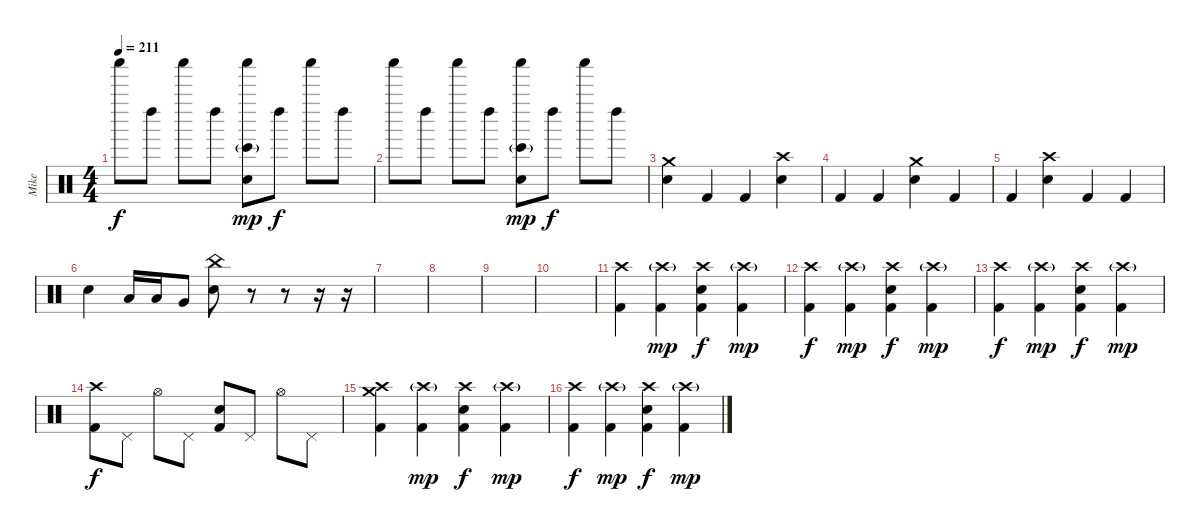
\track ("Mike" "Mike") {instrument percussion}
\staff {score}
\articulation defaults
\ts (4 4)
\tempo 211
\clef neutral
\ks c "Shaker (hit)".8{dy f} "Left Maraca (hit)".8 "Shaker (hit)".8 "Left Maraca (hit)".8
("Shaker (hit)" "Bongo High (hit)"{g} "Electric Snare (hit)").8{dy mp} "Left Maraca (hit)".8{dy f} "Shaker (hit)".8 "Left Maraca (hit)".8 |
"Shaker (hit)".8 "Left Maraca (hit)".8 "Shaker (hit)".8 "Left Maraca (hit)".8 ("Shaker (hit)" "Bongo High (hit)"{g} "Electric Snare (hit)").8{dy mp} "Left Maraca (hit)".8{dy f} "Shaker (hit)".8 "Left Maraca (hit)".8 |
("Crash medium (hit)" "Electric Snare (hit)").4 "Kick (hit) 2".4 "Kick (hit) 2".4 ("Crash high (hit)" "Electric Snare (hit)").4 |
"Kick (hit) 2".4 "Kick (hit) 2".4 ("Crash medium (hit)" "Electric Snare (hit)").4 "Kick (hit) 2".4 |
"Kick (hit) 2".4 ("Crash high (hit)" "Electric Snare (hit)").4 "Kick (hit) 2".4 "Kick (hit) 2".4 |
"Electric Snare (hit)".4 "Low Tom (hit)".16 "Low Tom (hit)".16 "Very Low Tom (hit)".8 ("China (hit)" "Electric Snare (hit)").8 r.8 r.8 r.16 r.16 |
|
|
|
|
("Crash high (hit)" "Kick (hit) 2").4 ("Crash high (hit)"{g} "Kick (hit) 2").4{dy mp} ("Crash high (hit)" "Electric Snare (hit)" "Kick (hit) 2").4{dy f} ("Crash high (hit)"{g} "Kick (hit) 2").4{dy mp} |
("Crash high (hit)" "Kick (hit) 2").4{dy f} ("Crash high (hit)"{g} "Kick (hit) 2").4{dy mp} ("Crash high (hit)" "Electric Snare (hit)" "Kick (hit) 2").4{dy f} ("Crash high (hit)"{g} "Kick (hit) 2").4{dy mp} |
("Crash high (hit)" "Kick (hit) 2").4{dy f} ("Crash high (hit)"{g} "Kick (hit) 2").4{dy mp} ("Crash high (hit)" "Electric Snare (hit)" "Kick (hit) 2").4{dy f} ("Crash high (hit)"{g} "Kick (hit) 2").4{dy mp} |
("Crash high (hit)" "Kick (hit) 2").8{dy f} "Pedal Hi-Hat (hit)".8 "Hi-Hat (open)".8 "Pedal Hi-Hat (hit)".8 ("Electric Snare (hit)" "Kick (hit) 2").8 "Pedal Hi-Hat (hit)".8 "Hi-Hat (open)".8 "Pedal Hi-Hat (hit)".8 |
("Crash high (hit)" "Crash medium (hit)" "Kick (hit) 2").4 ("Crash high (hit)"{g} "Kick (hit) 2").4{dy mp} ("Crash high (hit)" "Electric Snare (hit)" "Kick (hit) 2").4{dy f} ("Crash high (hit)"{g} "Kick (hit) 2").4{dy mp} |
("Crash high (hit)" "Kick (hit) 2").4{dy f} ("Crash high (hit)"{g} "Kick (hit) 2").4{dy mp} ("Crash high (hit)" "Electric Snare (hit)" "Kick (hit) 2").4{dy f} ("Crash high (hit)"{g} "Kick (hit) 2").4{dy mp}
